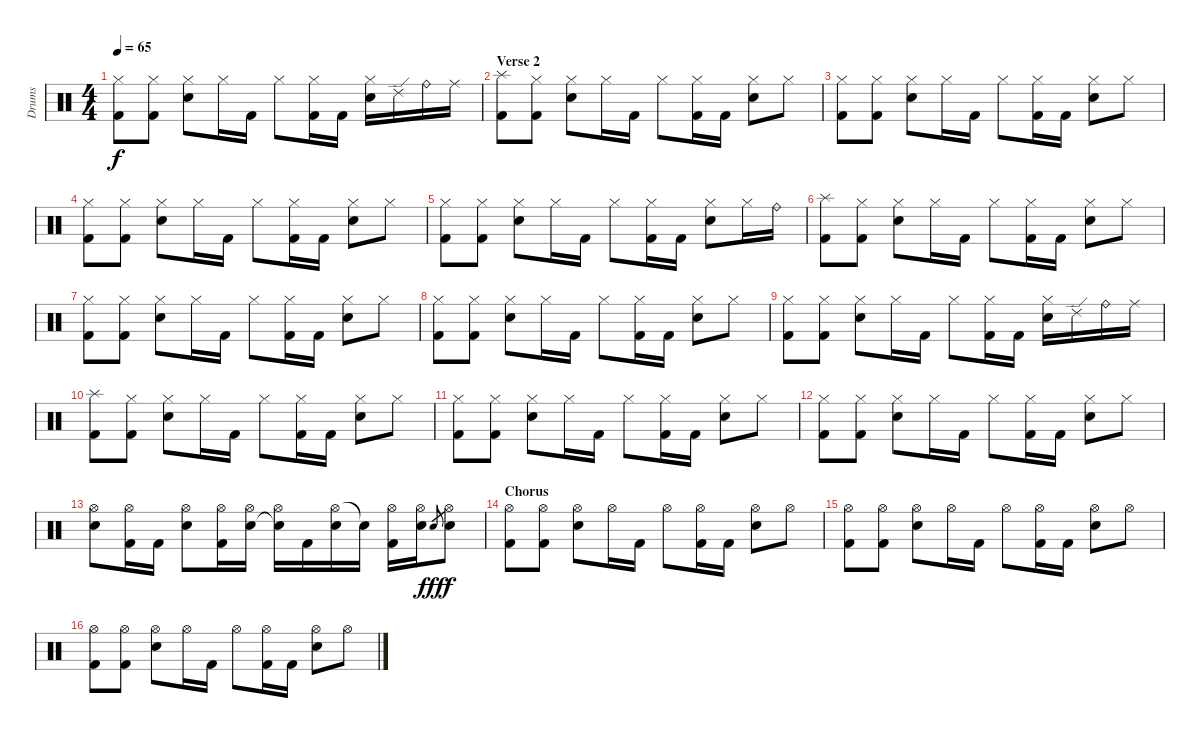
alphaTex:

\track ("Drums" "Drums") {instrument percussion}
\staff {score}
\articulation defaults
\ts (4 4)
\tempo 65
\clef neutral
\ks c
("Hi-Hat (closed)" "Kick (hit) 2").8{dy f} ("Hi-Hat (closed)" "Kick (hit) 2").8 ("Hi-Hat (closed)" "Snare (hit) 2").8 "Hi-Hat (closed)".16 "Kick (hit) 2".16 "Hi-Hat (closed)".8 ("Hi-Hat (closed)" "Kick (hit) 2").16 "Kick (hit) 2".16 ("Hi-Hat (closed)" "Snare (hit) 2").16 "Ride (edge) 2".16 "Ride (bell)".16 "Ride (middle)".16 |
\section ("" "Verse 2")
("Splash (hit)" "Kick (hit) 2").8 ("Hi-Hat (closed)" "Kick (hit) 2").8 ("Hi-Hat (closed)" "Snare (hit) 2").8 "Hi-Hat (closed)".16 "Kick (hit) 2".16 "Hi-Hat (closed)".8 ("Hi-Hat (closed)" "Kick (hit) 2").16 "Kick (hit) 2".16 ("Hi-Hat (closed)" "Snare (hit) 2").8 "Hi-Hat (closed)".8 |
("Hi-Hat (closed)" "Kick (hit) 2").8 ("Hi-Hat (closed)" "Kick (hit) 2").8 ("Hi-Hat (closed)" "Snare (hit) 2").8 "Hi-Hat (closed)".16 "Kick (hit) 2".16 "Hi-Hat (closed)".8 ("Hi-Hat (closed)" "Kick (hit) 2").16 "Kick (hit) 2".16 ("Hi-Hat (closed)" "Snare (hit) 2").8 "Hi-Hat (closed)".8 |
("Hi-Hat (closed)" "Kick (hit) 2").8 ("Hi-Hat (closed)" "Kick (hit) 2").8 ("Hi-Hat (closed)" "Snare (hit) 2").8 "Hi-Hat (closed)".16 "Kick (hit) 2".16 "Hi-Hat (closed)".8 ("Hi-Hat (closed)" "Kick (hit) 2").16 "Kick (hit) 2".16 ("Hi-Hat (closed)" "Snare (hit) 2").8 "Hi-Hat (closed)".8 |
("Hi-Hat (closed)" "Kick (hit) 2").8 ("Hi-Hat (closed)" "Kick (hit) 2").8 ("Hi-Hat (closed)" "Snare (hit) 2").8 "Hi-Hat (closed)".16 "Kick (hit) 2".16 "Hi-Hat (closed)".8 ("Hi-Hat (closed)" "Kick (hit) 2").16 "Kick (hit) 2".16 ("Hi-Hat (closed)" "Snare (hit) 2").8 "Hi-Hat (closed)".16 "Ride (bell)".16 |
("Splash (hit)" "Kick (hit) 2").8 ("Hi-Hat (closed)" "Kick (hit) 2").8 ("Hi-Hat (closed)" "Snare (hit) 2").8 "Hi-Hat (closed)".16 "Kick (hit) 2".16 "Hi-Hat (closed)".8 ("Hi-Hat (closed)" "Kick (hit) 2").16 "Kick (hit) 2".16 ("Hi-Hat (closed)" "Snare (hit) 2").8 "Hi-Hat (closed)".8 |
("Hi-Hat (closed)" "Kick (hit) 2").8 ("Hi-Hat (closed)" "Kick (hit) 2").8 ("Hi-Hat (closed)" "Snare (hit) 2").8 "Hi-Hat (closed)".16 "Kick (hit) 2".16 "Hi-Hat (closed)".8 ("Hi-Hat (closed)" "Kick (hit) 2").16 "Kick (hit) 2".16 ("Hi-Hat (closed)" "Snare (hit) 2").8 "Hi-Hat (closed)".8 |
("Hi-Hat (closed)" "Kick (hit) 2").8 ("Hi-Hat (closed)" "Kick (hit) 2").8 ("Hi-Hat (closed)" "Snare (hit) 2").8 "Hi-Hat (closed)".16 "Kick (hit) 2".16 "Hi-Hat (closed)".8 ("Hi-Hat (closed)" "Kick (hit) 2").16 "Kick (hit) 2".16 ("Hi-Hat (closed)" "Snare (hit) 2").8 "Hi-Hat (closed)".8 |
("Hi-Hat (closed)" "Kick (hit) 2").8 ("Hi-Hat (closed)" "Kick (hit) 2").8 ("Hi-Hat (closed)" "Snare (hit) 2").8 "Hi-Hat (closed)".16 "Kick (hit) 2".16 "Hi-Hat (closed)".8 ("Hi-Hat (closed)" "Kick (hit) 2").16 "Kick (hit) 2".16 ("Hi-Hat (closed)" "Snare (hit) 2").16 "Ride (edge) 2".16 "Ride (bell)".16 "Ride (middle)".16 |
("Splash (hit)" "Kick (hit) 2").8 ("Hi-Hat (closed)" "Kick (hit) 2").8 ("Hi-Hat (closed)" "Snare (hit) 2").8 "Hi-Hat (closed)".16 "Kick (hit) 2".16 "Hi-Hat (closed)".8 ("Hi-Hat (closed)" "Kick (hit) 2").16 "Kick (hit) 2".16 ("Hi-Hat (closed)" "Snare (hit) 2").8 "Hi-Hat (closed)".8 |
("Hi-Hat (closed)" "Kick (hit) 2").8 ("Hi-Hat (closed)" "Kick (hit) 2").8 ("Hi-Hat (closed)" "Snare (hit) 2").8 "Hi-Hat (closed)".16 "Kick (hit) 2".16 "Hi-Hat (closed)".8 ("Hi-Hat (closed)" "Kick (hit) 2").16 "Kick (hit) 2".16 ("Hi-Hat (closed)" "Snare (hit) 2").8 "Hi-Hat (closed)".8 |
("Hi-Hat (closed)" "Kick (hit) 2").8 ("Hi-Hat (closed)" "Kick (hit) 2").8 ("Hi-Hat (closed)" "Snare (hit) 2").8 "Hi-Hat (closed)".16 "Kick (hit) 2".16 "Hi-Hat (closed)".8 ("Hi-Hat (closed)" "Kick (hit) 2").16 "Kick (hit) 2".16 ("Hi-Hat (closed)" "Snare (hit) 2").8 "Hi-Hat (closed)".8 |
("Hi-Hat (open)" "Snare (hit) 2").8 ("Hi-Hat (open)" "Kick (hit) 2").16 "Kick (hit) 2".16 ("Hi-Hat (open)" "Snare (hit) 2").8 ("Hi-Hat (open)" "Kick (hit) 2").16 ("Hi-Hat (open)" "Snare (hit) 2").16 ("Hi-Hat (open)" "Snare (hit)"{t}).16 "Kick (hit) 2".16 ("Hi-Hat (open)" "Snare (hit) 2").16 "Snare (hit)"{t}.16 ("Hi-Hat (open)" "Kick (hit) 2").16 ("Hi-Hat (open)" "Snare (hit) 2").16 "Snare (hit) 2"{sl}.8{gr dy fff} ("Hi-Hat (open)" "Snare (hit) 2").8{dy f} |
\section ("" "Chorus")
("Hi-Hat (open)" "Kick (hit) 2").8 ("Hi-Hat (open)" "Kick (hit) 2").8 ("Hi-Hat (open)" "Snare (hit) 2").8 "Hi-Hat (open)".16 "Kick (hit) 2".16 "Hi-Hat (open)".8 ("Hi-Hat (open)" "Kick (hit) 2").16 "Kick (hit) 2".16 ("Hi-Hat (open)" "Snare (hit) 2").8 "Hi-Hat (open)".8 |
("Hi-Hat (open)" "Kick (hit) 2").8 ("Hi-Hat (open)" "Kick (hit) 2").8 ("Hi-Hat (open)" "Snare (hit) 2").8 "Hi-Hat (open)".16 "Kick (hit) 2".16 "Hi-Hat (open)".8 ("Hi-Hat (open)" "Kick (hit) 2").16 "Kick (hit) 2".16 ("Hi-Hat (open)" "Snare (hit) 2").8 "Hi-Hat (open)".8 |
("Hi-Hat (open)" "Kick (hit) 2").8 ("Hi-Hat (open)" "Kick (hit) 2").8 ("Hi-Hat (open)" "Snare (hit) 2").8 "Hi-Hat (open)".16 "Kick (hit) 2".16 "Hi-Hat (open)".8 ("Hi-Hat (open)" "Kick (hit) 2").16 "Kick (hit) 2".16 ("Hi-Hat (open)" "Snare (hit) 2").8 "Hi-Hat (open)".8
